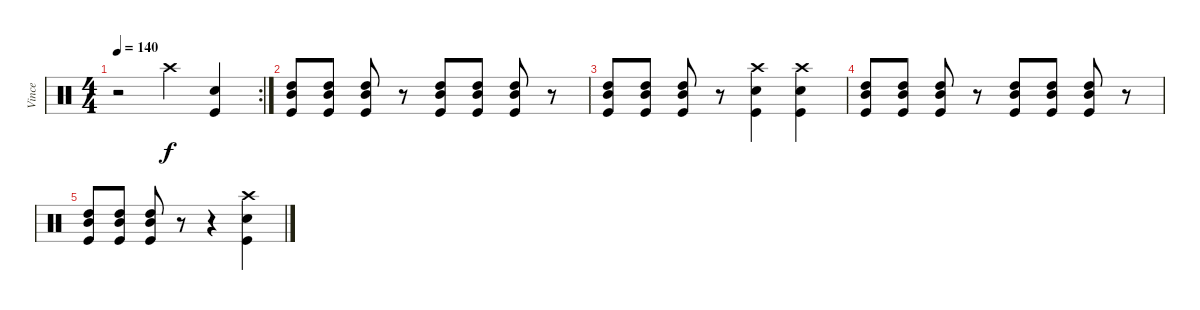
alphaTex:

\track ("Vince" "Vince") {instrument percussion}
\staff {score}
\articulation defaults
\rc 2
\ts (4 4)
\tempo 140
\clef neutral
\ks c
r.2{dy f} "Crash high (hit)".4 ("Snare (hit) 2" "Kick (hit)").4 |
("Kick (hit)" "Mid Tom (hit)" "High Tom (hit)").8 ("Kick (hit)" "Mid Tom (hit)" "High Tom (hit)").8 ("Kick (hit)" "Mid Tom (hit)" "High Tom (hit)").8 r.8 ("Kick (hit)" "Mid Tom (hit)" "High Tom (hit)").8 ("Kick (hit)" "Mid Tom (hit)" "High Tom (hit)").8 ("Kick (hit)" "Mid Tom (hit)" "High Tom (hit)").8 r.8 |
("Kick (hit)" "Mid Tom (hit)" "High Tom (hit)").8 ("Kick (hit)" "Mid Tom (hit)" "High Tom (hit)").8 ("Kick (hit)" "Mid Tom (hit)" "High Tom (hit)").8 r.8 ("Crash high (hit)" "Snare (hit) 2" "Kick (hit)").4 ("Crash high (hit)" "Snare (hit) 2" "Kick (hit)").4 |
("Kick (hit)" "Mid Tom (hit)" "High Tom (hit)").8 ("Kick (hit)" "Mid Tom (hit)" "High Tom (hit)").8 ("Kick (hit)" "Mid Tom (hit)" "High Tom (hit)").8 r.8 ("Kick (hit)" "Mid Tom (hit)" "High Tom (hit)").8 ("Kick (hit)" "Mid Tom (hit)" "High Tom (hit)").8 ("Kick (hit)" "Mid Tom (hit)" "High Tom (hit)").8 r.8 |
("Kick (hit)" "Mid Tom (hit)" "High Tom (hit)").8 ("Kick (hit)" "Mid Tom (hit)" "High Tom (hit)").8 ("Kick (hit)" "Mid Tom (hit)" "High Tom (hit)").8 r.8 r.4 ("Crash high (hit)" "Snare (hit) 2" "Kick (hit)").4
